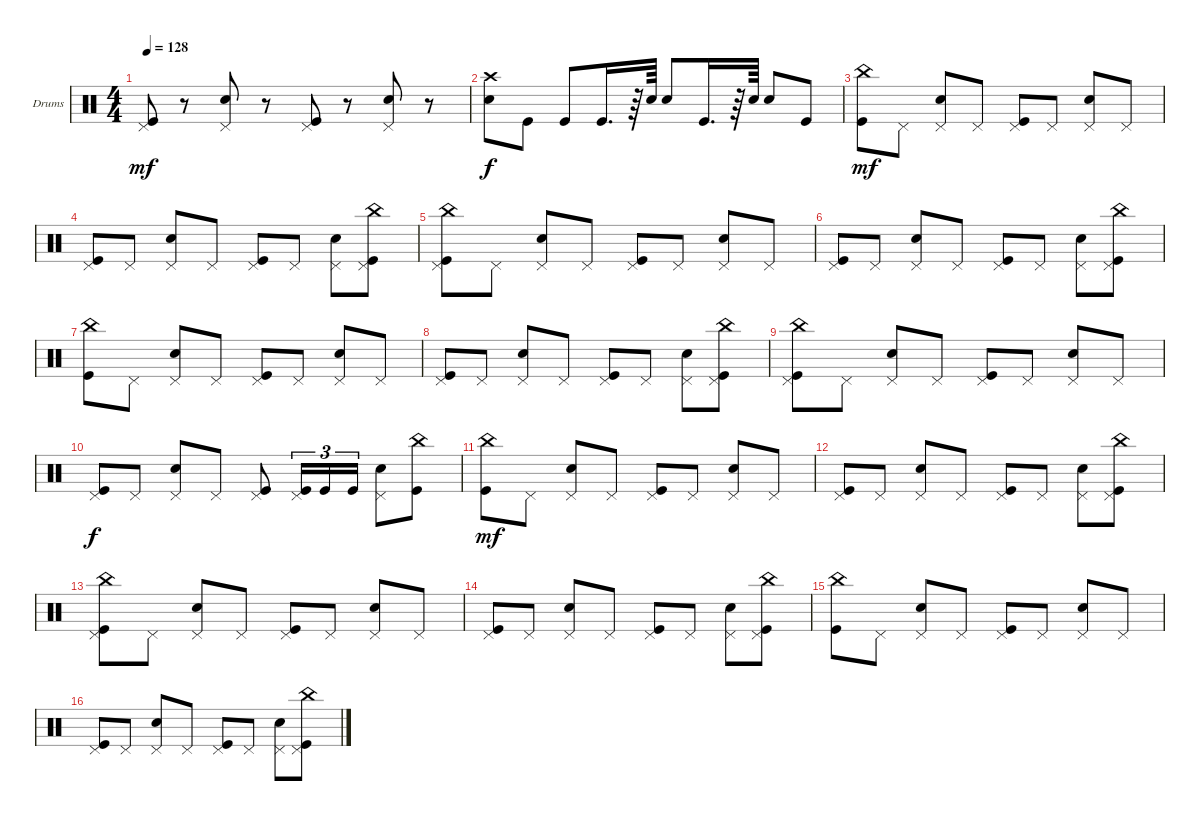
\defaultSystemsLayout 4
\bracketExtendMode groupsimilarinstruments
\firstSystemTrackNameOrientation horizontal
\otherSystemsTrackNameOrientation horizontal
\track ("Drumkit" "Drums") {instrument percussion}
\staff {score}
\articulation defaults
\ts (4 4)
\tempo 128
\clef neutral
\ks c
("Kick (hit)" "Pedal Hi-Hat (hit)").8{dy mf} r.8 ("Pedal Hi-Hat (hit)" "Snare (hit) 2").8 r.8 ("Pedal Hi-Hat (hit)" "Kick (hit)").8 r.8 ("Pedal Hi-Hat (hit)" "Snare (hit) 2").8 r.8 |
("Snare (hit) 2" "Crash high (hit)").8{dy f} "Kick (hit)".8 "Kick (hit)".8 "Kick (hit)".16{d} r.64 "Snare (hit) 2".64 "Snare (hit) 2".8 "Kick (hit)".16{d} r.64 "Snare (hit) 2".64 "Snare (hit) 2".8 "Kick (hit)".8 |
("Kick (hit)" "China (hit)").8{dy mf} "Pedal Hi-Hat (hit)".8 ("Snare (hit) 2" "Pedal Hi-Hat (hit)").8 "Pedal Hi-Hat (hit)".8 ("Pedal Hi-Hat (hit)" "Kick (hit)").8 "Pedal Hi-Hat (hit)".8 ("Pedal Hi-Hat (hit)" "Snare (hit) 2").8 "Pedal Hi-Hat (hit)".8 |
("Kick (hit)" "Pedal Hi-Hat (hit)").8 "Pedal Hi-Hat (hit)".8 ("Pedal Hi-Hat (hit)" "Snare (hit) 2").8 "Pedal Hi-Hat (hit)".8 ("Pedal Hi-Hat (hit)" "Kick (hit)").8 "Pedal Hi-Hat (hit)".8 ("Pedal Hi-Hat (hit)" "Snare (hit) 2").8 ("Pedal Hi-Hat (hit)" "China (hit)" "Kick (hit)").8 |
("China (hit)" "Pedal Hi-Hat (hit)" "Kick (hit)").8 "Pedal Hi-Hat (hit)".8 ("Pedal Hi-Hat (hit)" "Snare (hit) 2").8 "Pedal Hi-Hat (hit)".8 ("Pedal Hi-Hat (hit)" "Kick (hit)").8 "Pedal Hi-Hat (hit)".8 ("Pedal Hi-Hat (hit)" "Snare (hit) 2").8 "Pedal Hi-Hat (hit)".8 |
("Kick (hit)" "Pedal Hi-Hat (hit)").8 "Pedal Hi-Hat (hit)".8 ("Pedal Hi-Hat (hit)" "Snare (hit) 2").8 "Pedal Hi-Hat (hit)".8 ("Pedal Hi-Hat (hit)" "Kick (hit)").8 "Pedal Hi-Hat (hit)".8 ("Pedal Hi-Hat (hit)" "Snare (hit) 2").8 ("Pedal Hi-Hat (hit)" "China (hit)" "Kick (hit)").8 |
("Kick (hit)" "China (hit)").8 "Pedal Hi-Hat (hit)".8 ("Snare (hit) 2" "Pedal Hi-Hat (hit)").8 "Pedal Hi-Hat (hit)".8 ("Pedal Hi-Hat (hit)" "Kick (hit)").8 "Pedal Hi-Hat (hit)".8 ("Pedal Hi-Hat (hit)" "Snare (hit) 2").8 "Pedal Hi-Hat (hit)".8 |
("Kick (hit)" "Pedal Hi-Hat (hit)").8 "Pedal Hi-Hat (hit)".8 ("Pedal Hi-Hat (hit)" "Snare (hit) 2").8 "Pedal Hi-Hat (hit)".8 ("Pedal Hi-Hat (hit)" "Kick (hit)").8 "Pedal Hi-Hat (hit)".8 ("Pedal Hi-Hat (hit)" "Snare (hit) 2").8 ("Pedal Hi-Hat (hit)" "China (hit)" "Kick (hit)").8 |
("China (hit)" "Pedal Hi-Hat (hit)" "Kick (hit)").8 "Pedal Hi-Hat (hit)".8 ("Pedal Hi-Hat (hit)" "Snare (hit) 2").8 "Pedal Hi-Hat (hit)".8 ("Pedal Hi-Hat (hit)" "Kick (hit)").8 "Pedal Hi-Hat (hit)".8 ("Pedal Hi-Hat (hit)" "Snare (hit) 2").8 "Pedal Hi-Hat (hit)".8 |
("Kick (hit)" "Pedal Hi-Hat (hit)").8{dy f} "Pedal Hi-Hat (hit)".8 ("Pedal Hi-Hat (hit)" "Snare (hit) 2").8 "Pedal Hi-Hat (hit)".8 ("Kick (hit)" "Pedal Hi-Hat (hit)").8 ("Kick (hit)" "Pedal Hi-Hat (hit)").16{tu (3 2)} "Kick (hit)".16{tu (3 2)} "Kick (hit)".16{tu (3 2)} ("Snare (hit) 2" "Pedal Hi-Hat (hit)").8 ("Kick (hit)" "China (hit)").8 |
("Kick (hit)" "China (hit)").8{dy mf} "Pedal Hi-Hat (hit)".8 ("Snare (hit) 2" "Pedal Hi-Hat (hit)").8 "Pedal Hi-Hat (hit)".8 ("Pedal Hi-Hat (hit)" "Kick (hit)").8 "Pedal Hi-Hat (hit)".8 ("Pedal Hi-Hat (hit)" "Snare (hit) 2").8 "Pedal Hi-Hat (hit)".8 |
("Kick (hit)" "Pedal Hi-Hat (hit)").8 "Pedal Hi-Hat (hit)".8 ("Pedal Hi-Hat (hit)" "Snare (hit) 2").8 "Pedal Hi-Hat (hit)".8 ("Pedal Hi-Hat (hit)" "Kick (hit)").8 "Pedal Hi-Hat (hit)".8 ("Pedal Hi-Hat (hit)" "Snare (hit) 2").8 ("Pedal Hi-Hat (hit)" "China (hit)" "Kick (hit)").8 |
("China (hit)" "Pedal Hi-Hat (hit)" "Kick (hit)").8 "Pedal Hi-Hat (hit)".8 ("Pedal Hi-Hat (hit)" "Snare (hit) 2").8 "Pedal Hi-Hat (hit)".8 ("Pedal Hi-Hat (hit)" "Kick (hit)").8 "Pedal Hi-Hat (hit)".8 ("Pedal Hi-Hat (hit)" "Snare (hit) 2").8 "Pedal Hi-Hat (hit)".8 |
("Kick (hit)" "Pedal Hi-Hat (hit)").8 "Pedal Hi-Hat (hit)".8 ("Pedal Hi-Hat (hit)" "Snare (hit) 2").8 "Pedal Hi-Hat (hit)".8 ("Pedal Hi-Hat (hit)" "Kick (hit)").8 "Pedal Hi-Hat (hit)".8 ("Pedal Hi-Hat (hit)" "Snare (hit) 2").8 ("Pedal Hi-Hat (hit)" "China (hit)" "Kick (hit)").8 |
("Kick (hit)" "China (hit)").8 "Pedal Hi-Hat (hit)".8 ("Snare (hit) 2" "Pedal Hi-Hat (hit)").8 "Pedal Hi-Hat (hit)".8 ("Pedal Hi-Hat (hit)" "Kick (hit)").8 "Pedal Hi-Hat (hit)".8 ("Pedal Hi-Hat (hit)" "Snare (hit) 2").8 "Pedal Hi-Hat (hit)".8 |
("Kick (hit)" "Pedal Hi-Hat (hit)").8 "Pedal Hi-Hat (hit)".8 ("Pedal Hi-Hat (hit)" "Snare (hit) 2").8 "Pedal Hi-Hat (hit)".8 ("Pedal Hi-Hat (hit)" "Kick (hit)").8 "Pedal Hi-Hat (hit)".8 ("Pedal Hi-Hat (hit)" "Snare (hit) 2").8 ("Pedal Hi-Hat (hit)" "China (hit)" "Kick (hit)").8
